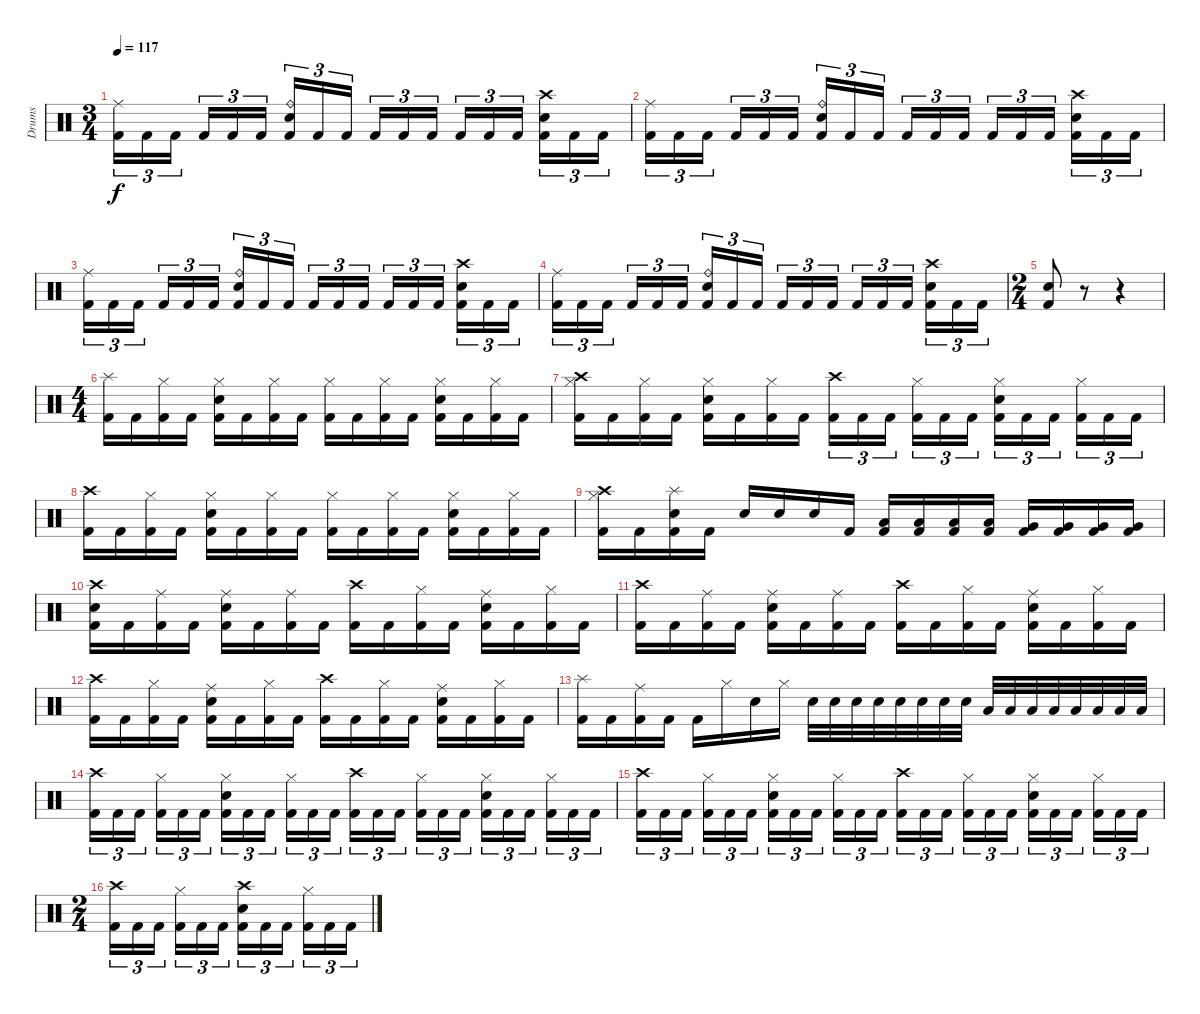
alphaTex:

\track ("Drums" "Drums") {instrument percussion}
\staff {score}
\articulation defaults
\ts (3 4)
\tempo 117
\clef neutral
\ks c
("Ride (middle)" "Kick (hit) 2").16{tu (3 2) dy f} "Kick (hit) 2".16{tu (3 2)} "Kick (hit) 2".16{tu (3 2)} "Kick (hit) 2".16{tu (3 2)} "Kick (hit) 2".16{tu (3 2)} "Kick (hit) 2".16{tu (3 2)} ("Ride (bell)" "Electric Snare (hit)" "Kick (hit) 2").16{tu (3 2)} "Kick (hit) 2".16{tu (3 2)} "Kick (hit) 2".16{tu (3 2)} "Kick (hit) 2".16{tu (3 2)} "Kick (hit) 2".16{tu (3 2)} "Kick (hit) 2".16{tu (3 2)} "Kick (hit) 2".16{tu (3 2)} "Kick (hit) 2".16{tu (3 2)} "Kick (hit) 2".16{tu (3 2)} ("Crash high (hit)" "Electric Snare (hit)" "Kick (hit) 2").16{tu (3 2)} "Kick (hit) 2".16{tu (3 2)} "Kick (hit) 2".16{tu (3 2)} |
("Ride (middle)" "Kick (hit) 2").16{tu (3 2)} "Kick (hit) 2".16{tu (3 2)} "Kick (hit) 2".16{tu (3 2)} "Kick (hit) 2".16{tu (3 2)} "Kick (hit) 2".16{tu (3 2)} "Kick (hit) 2".16{tu (3 2)} ("Ride (bell)" "Electric Snare (hit)" "Kick (hit) 2").16{tu (3 2)} "Kick (hit) 2".16{tu (3 2)} "Kick (hit) 2".16{tu (3 2)} "Kick (hit) 2".16{tu (3 2)} "Kick (hit) 2".16{tu (3 2)} "Kick (hit) 2".16{tu (3 2)} "Kick (hit) 2".16{tu (3 2)} "Kick (hit) 2".16{tu (3 2)} "Kick (hit) 2".16{tu (3 2)} ("Crash high (hit)" "Electric Snare (hit)" "Kick (hit) 2").16{tu (3 2)} "Kick (hit) 2".16{tu (3 2)} "Kick (hit) 2".16{tu (3 2)} |
("Ride (middle)" "Kick (hit) 2").16{tu (3 2)} "Kick (hit) 2".16{tu (3 2)} "Kick (hit) 2".16{tu (3 2)} "Kick (hit) 2".16{tu (3 2)} "Kick (hit) 2".16{tu (3 2)} "Kick (hit) 2".16{tu (3 2)} ("Ride (bell)" "Electric Snare (hit)" "Kick (hit) 2").16{tu (3 2)} "Kick (hit) 2".16{tu (3 2)} "Kick (hit) 2".16{tu (3 2)} "Kick (hit) 2".16{tu (3 2)} "Kick (hit) 2".16{tu (3 2)} "Kick (hit) 2".16{tu (3 2)} "Kick (hit) 2".16{tu (3 2)} "Kick (hit) 2".16{tu (3 2)} "Kick (hit) 2".16{tu (3 2)} ("Crash high (hit)" "Electric Snare (hit)" "Kick (hit) 2").16{tu (3 2)} "Kick (hit) 2".16{tu (3 2)} "Kick (hit) 2".16{tu (3 2)} |
("Ride (middle)" "Kick (hit) 2").16{tu (3 2)} "Kick (hit) 2".16{tu (3 2)} "Kick (hit) 2".16{tu (3 2)} "Kick (hit) 2".16{tu (3 2)} "Kick (hit) 2".16{tu (3 2)} "Kick (hit) 2".16{tu (3 2)} ("Ride (bell)" "Electric Snare (hit)" "Kick (hit) 2").16{tu (3 2)} "Kick (hit) 2".16{tu (3 2)} "Kick (hit) 2".16{tu (3 2)} "Kick (hit) 2".16{tu (3 2)} "Kick (hit) 2".16{tu (3 2)} "Kick (hit) 2".16{tu (3 2)} "Kick (hit) 2".16{tu (3 2)} "Kick (hit) 2".16{tu (3 2)} "Kick (hit) 2".16{tu (3 2)} ("Crash high (hit)" "Electric Snare (hit)" "Kick (hit) 2").16{tu (3 2)} "Kick (hit) 2".16{tu (3 2)} "Kick (hit) 2".16{tu (3 2)} |
\ts (2 4)
("Electric Snare (hit)" "Kick (hit) 2").8 r.8 r.4 |
\ts (4 4)
("Splash (hit)" "Kick (hit) 2").16 "Kick (hit) 2".16 ("Hi-Hat (closed)" "Kick (hit) 2").16 "Kick (hit) 2".16 ("Hi-Hat (closed)" "Electric Snare (hit)" "Kick (hit) 2").16 "Kick (hit) 2".16 ("Hi-Hat (closed)" "Kick (hit) 2").16 "Kick (hit) 2".16 ("Hi-Hat (closed)" "Kick (hit) 2").16 "Kick (hit) 2".16 ("Hi-Hat (closed)" "Kick (hit) 2").16 "Kick (hit) 2".16 ("Hi-Hat (closed)" "Electric Snare (hit)" "Kick (hit) 2").16 "Kick (hit) 2".16 ("Hi-Hat (closed)" "Kick (hit) 2").16 "Kick (hit) 2".16 |
("Crash high (hit)" "Hi-Hat (closed)" "Kick (hit) 2").16 "Kick (hit) 2".16 ("Hi-Hat (closed)" "Kick (hit) 2").16 "Kick (hit) 2".16 ("Hi-Hat (closed)" "Electric Snare (hit)" "Kick (hit) 2").16 "Kick (hit) 2".16 ("Hi-Hat (closed)" "Kick (hit) 2").16 "Kick (hit) 2".16 ("Crash high (hit)" "Kick (hit) 2").16{tu (3 2)} "Kick (hit) 2".16{tu (3 2)} "Kick (hit) 2".16{tu (3 2)} ("Hi-Hat (closed)" "Kick (hit) 2").16{tu (3 2)} "Kick (hit) 2".16{tu (3 2)} "Kick (hit) 2".16{tu (3 2)} ("Hi-Hat (closed)" "Electric Snare (hit)" "Kick (hit) 2").16{tu (3 2)} "Kick (hit) 2".16{tu (3 2)} "Kick (hit) 2".16{tu (3 2)} ("Hi-Hat (closed)" "Kick (hit) 2").16{tu (3 2)} "Kick (hit) 2".16{tu (3 2)} "Kick (hit) 2".16{tu (3 2)} |
("Crash high (hit)" "Kick (hit) 2").16 "Kick (hit) 2".16 ("Hi-Hat (closed)" "Kick (hit) 2").16 "Kick (hit) 2".16 ("Hi-Hat (closed)" "Electric Snare (hit)" "Kick (hit) 2").16 "Kick (hit) 2".16 ("Hi-Hat (closed)" "Kick (hit) 2").16 "Kick (hit) 2".16 ("Hi-Hat (closed)" "Kick (hit) 2").16 "Kick (hit) 2".16 ("Hi-Hat (closed)" "Kick (hit) 2").16 "Kick (hit) 2".16 ("Hi-Hat (closed)" "Electric Snare (hit)" "Kick (hit) 2").16 "Kick (hit) 2".16 ("Hi-Hat (closed)" "Kick (hit) 2").16 "Kick (hit) 2".16 |
("Crash high (hit)" "Hi-Hat (closed)" "Kick (hit) 2").16 "Kick (hit) 2".16 ("Splash (hit)" "Electric Snare (hit)" "Kick (hit) 2").16 "Kick (hit) 2".16 "Electric Snare (hit)".16 "Electric Snare (hit)".16 "Electric Snare (hit)".16 "Kick (hit) 2".16 ("Low Floor Tom (hit)" "Kick (hit) 2").16 ("Low Floor Tom (hit)" "Kick (hit) 2").16 ("Low Floor Tom (hit)" "Kick (hit) 2").16 ("Low Floor Tom (hit)" "Kick (hit) 2").16 ("Very Low Tom (hit)" "Kick (hit) 2").16 ("Very Low Tom (hit)" "Kick (hit) 2").16 ("Very Low Tom (hit)" "Kick (hit) 2").16 ("Very Low Tom (hit)" "Kick (hit) 2").16 |
("Crash high (hit)" "Electric Snare (hit)" "Kick (hit) 2").16 "Kick (hit) 2".16 ("Ride (middle)" "Kick (hit) 2").16 "Kick (hit) 2".16 ("Ride (middle)" "Electric Snare (hit)" "Kick (hit) 2").16 "Kick (hit) 2".16 ("Ride (middle)" "Kick (hit) 2").16 "Kick (hit) 2".16 ("Crash high (hit)" "Kick (hit) 2").16 "Kick (hit) 2".16 ("Hi-Hat (closed)" "Kick (hit) 2").16 "Kick (hit) 2".16 ("Ride (middle)" "Electric Snare (hit)" "Kick (hit) 2").16 "Kick (hit) 2".16 ("Hi-Hat (closed)" "Kick (hit) 2").16 "Kick (hit) 2".16 |
("Crash high (hit)" "Kick (hit) 2").16 "Kick (hit) 2".16 ("Ride (middle)" "Kick (hit) 2").16 "Kick (hit) 2".16 ("Ride (middle)" "Electric Snare (hit)" "Kick (hit) 2").16 "Kick (hit) 2".16 ("Ride (middle)" "Kick (hit) 2").16 "Kick (hit) 2".16 ("Crash high (hit)" "Kick (hit) 2").16 "Kick (hit) 2".16 ("Hi-Hat (closed)" "Kick (hit) 2").16 "Kick (hit) 2".16 ("Ride (middle)" "Electric Snare (hit)" "Kick (hit) 2").16 "Kick (hit) 2".16 ("Hi-Hat (closed)" "Kick (hit) 2").16 "Kick (hit) 2".16 |
("Crash high (hit)" "Kick (hit) 2").16 "Kick (hit) 2".16 ("Hi-Hat (closed)" "Kick (hit) 2").16 "Kick (hit) 2".16 ("Ride (middle)" "Electric Snare (hit)" "Kick (hit) 2").16 "Kick (hit) 2".16 ("Hi-Hat (closed)" "Kick (hit) 2").16 "Kick (hit) 2".16 ("Crash high (hit)" "Kick (hit) 2").16 "Kick (hit) 2".16 ("Hi-Hat (closed)" "Kick (hit) 2").16 "Kick (hit) 2".16 ("Ride (middle)" "Electric Snare (hit)" "Kick (hit) 2").16 "Kick (hit) 2".16 ("Hi-Hat (closed)" "Kick (hit) 2").16 "Kick (hit) 2".16 |
("Splash (hit)" "Kick (hit) 2").16 "Kick (hit) 2".16 ("Ride (middle)" "Kick (hit) 2").16 "Kick (hit) 2".16 "Kick (hit) 2".16 "Hi-Hat (closed)".16 "Electric Snare (hit)".16 "Hi-Hat (closed)".16 "Electric Snare (hit)".32 "Electric Snare (hit)".32 "Electric Snare (hit)".32 "Electric Snare (hit)".32 "Electric Snare (hit)".32 "Electric Snare (hit)".32 "Electric Snare (hit)".32 "Electric Snare (hit)".32 "Low Floor Tom (hit)".32 "Low Floor Tom (hit)".32 "Low Floor Tom (hit)".32 "Low Floor Tom (hit)".32 "Low Floor Tom (hit)".32 "Low Floor Tom (hit)".32 "Low Floor Tom (hit)".32 "Low Floor Tom (hit)".32 |
("Crash high (hit)" "Kick (hit) 2").16{tu (3 2)} "Kick (hit) 2".16{tu (3 2)} "Kick (hit) 2".16{tu (3 2)} ("Hi-Hat (closed)" "Kick (hit) 2").16{tu (3 2)} "Kick (hit) 2".16{tu (3 2)} "Kick (hit) 2".16{tu (3 2)} ("Hi-Hat (closed)" "Electric Snare (hit)" "Kick (hit) 2").16{tu (3 2)} "Kick (hit) 2".16{tu (3 2)} "Kick (hit) 2".16{tu (3 2)} ("Hi-Hat (closed)" "Kick (hit) 2").16{tu (3 2)} "Kick (hit) 2".16{tu (3 2)} "Kick (hit) 2".16{tu (3 2)} ("Crash high (hit)" "Kick (hit) 2").16{tu (3 2)} "Kick (hit) 2".16{tu (3 2)} "Kick (hit) 2".16{tu (3 2)} ("Hi-Hat (closed)" "Kick (hit) 2").16{tu (3 2)} "Kick (hit) 2".16{tu (3 2)} "Kick (hit) 2".16{tu (3 2)} ("Hi-Hat (closed)" "Electric Snare (hit)" "Kick (hit) 2").16{tu (3 2)} "Kick (hit) 2".16{tu (3 2)} "Kick (hit) 2".16{tu (3 2)} ("Hi-Hat (closed)" "Kick (hit) 2").16{tu (3 2)} "Kick (hit) 2".16{tu (3 2)} "Kick (hit) 2".16{tu (3 2)} |
("Crash high (hit)" "Kick (hit) 2").16{tu (3 2)} "Kick (hit) 2".16{tu (3 2)} "Kick (hit) 2".16{tu (3 2)} ("Hi-Hat (closed)" "Kick (hit) 2").16{tu (3 2)} "Kick (hit) 2".16{tu (3 2)} "Kick (hit) 2".16{tu (3 2)} ("Hi-Hat (closed)" "Electric Snare (hit)" "Kick (hit) 2").16{tu (3 2)} "Kick (hit) 2".16{tu (3 2)} "Kick (hit) 2".16{tu (3 2)} ("Hi-Hat (closed)" "Kick (hit) 2").16{tu (3 2)} "Kick (hit) 2".16{tu (3 2)} "Kick (hit) 2".16{tu (3 2)} ("Crash high (hit)" "Kick (hit) 2").16{tu (3 2)} "Kick (hit) 2".16{tu (3 2)} "Kick (hit) 2".16{tu (3 2)} ("Hi-Hat (closed)" "Kick (hit) 2").16{tu (3 2)} "Kick (hit) 2".16{tu (3 2)} "Kick (hit) 2".16{tu (3 2)} ("Hi-Hat (closed)" "Electric Snare (hit)" "Kick (hit) 2").16{tu (3 2)} "Kick (hit) 2".16{tu (3 2)} "Kick (hit) 2".16{tu (3 2)} ("Hi-Hat (closed)" "Kick (hit) 2").16{tu (3 2)} "Kick (hit) 2".16{tu (3 2)} "Kick (hit) 2".16{tu (3 2)} |
\ts (2 4)
("Crash high (hit)" "Kick (hit) 2").16{tu (3 2)} "Kick (hit) 2".16{tu (3 2)} "Kick (hit) 2".16{tu (3 2)} ("Hi-Hat (closed)" "Kick (hit) 2").16{tu (3 2)} "Kick (hit) 2".16{tu (3 2)} "Kick (hit) 2".16{tu (3 2)} ("Crash high (hit)" "Electric Snare (hit)" "Kick (hit) 2").16{tu (3 2)} "Kick (hit) 2".16{tu (3 2)} "Kick (hit) 2".16{tu (3 2)} ("Hi-Hat (closed)" "Kick (hit) 2").16{tu (3 2)} "Kick (hit) 2".16{tu (3 2)} "Kick (hit) 2".16{tu (3 2)}
